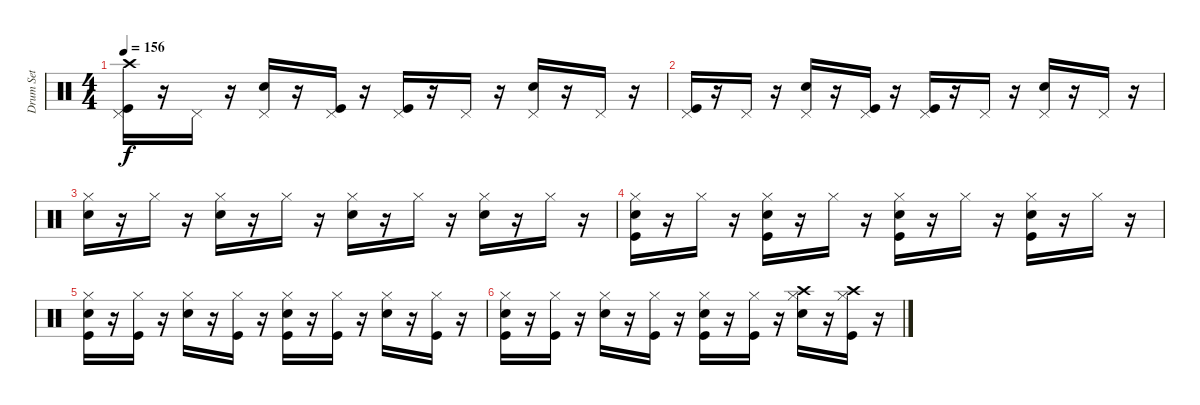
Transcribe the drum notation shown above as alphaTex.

\track ("Drum Set" "Drum Set") {instrument percussion}
\staff {score}
\articulation defaults
\ts (4 4)
\tempo 156
\clef neutral
\ks c
("Crash high (hit)" "Pedal Hi-Hat (hit)" "Kick (hit)").16{dy f} r.16 "Pedal Hi-Hat (hit)".16 r.16 ("Pedal Hi-Hat (hit)" "Snare (hit) 2").16 r.16 ("Pedal Hi-Hat (hit)" "Kick (hit)").16 r.16 ("Kick (hit)" "Pedal Hi-Hat (hit)").16 r.16 "Pedal Hi-Hat (hit)".16 r.16 ("Pedal Hi-Hat (hit)" "Snare (hit) 2").16 r.16 "Pedal Hi-Hat (hit)".16 r.16 |
("Pedal Hi-Hat (hit)" "Kick (hit)").16 r.16 "Pedal Hi-Hat (hit)".16 r.16 ("Pedal Hi-Hat (hit)" "Snare (hit) 2").16 r.16 ("Pedal Hi-Hat (hit)" "Kick (hit)").16 r.16 ("Kick (hit)" "Pedal Hi-Hat (hit)").16 r.16 "Pedal Hi-Hat (hit)".16 r.16 ("Pedal Hi-Hat (hit)" "Snare (hit) 2").16 r.16 "Pedal Hi-Hat (hit)".16 r.16 |
("Electric Snare (hit)" "Hi-Hat (closed)").16 r.16 "Hi-Hat (closed)".16 r.16 ("Electric Snare (hit)" "Hi-Hat (closed)").16 r.16 "Hi-Hat (closed)".16 r.16 ("Hi-Hat (closed)" "Electric Snare (hit)").16 r.16 "Hi-Hat (closed)".16 r.16 ("Hi-Hat (closed)" "Electric Snare (hit)").16 r.16 "Hi-Hat (closed)".16 r.16 |
("Kick (hit)" "Electric Snare (hit)" "Hi-Hat (closed)").16 r.16 "Hi-Hat (closed)".16 r.16 ("Kick (hit)" "Electric Snare (hit)" "Hi-Hat (closed)").16 r.16 "Hi-Hat (closed)".16 r.16 ("Kick (hit)" "Hi-Hat (closed)" "Electric Snare (hit)").16 r.16 "Hi-Hat (closed)".16 r.16 ("Kick (hit)" "Hi-Hat (closed)" "Electric Snare (hit)").16 r.16 "Hi-Hat (closed)".16 r.16 |
("Kick (hit)" "Electric Snare (hit)" "Hi-Hat (closed)").16 r.16 ("Kick (hit)" "Hi-Hat (closed)").16 r.16 ("Electric Snare (hit)" "Hi-Hat (closed)").16 r.16 ("Kick (hit)" "Hi-Hat (closed)").16 r.16 ("Kick (hit)" "Hi-Hat (closed)" "Electric Snare (hit)").16 r.16 ("Kick (hit)" "Hi-Hat (closed)").16 r.16 ("Hi-Hat (closed)" "Electric Snare (hit)").16 r.16 ("Kick (hit)" "Hi-Hat (closed)").16 r.16 |
("Kick (hit)" "Electric Snare (hit)" "Hi-Hat (closed)").16 r.16 ("Kick (hit)" "Hi-Hat (closed)").16 r.16 ("Electric Snare (hit)" "Hi-Hat (closed)").16 r.16 ("Kick (hit)" "Hi-Hat (closed)").16 r.16 ("Kick (hit)" "Hi-Hat (closed)" "Electric Snare (hit)").16 r.16 ("Kick (hit)" "Hi-Hat (closed)").16 r.16 ("Crash high (hit)" "Hi-Hat (closed)" "Electric Snare (hit)").16 r.16 ("Crash high (hit)" "Kick (hit)" "Hi-Hat (closed)").16 r.16
